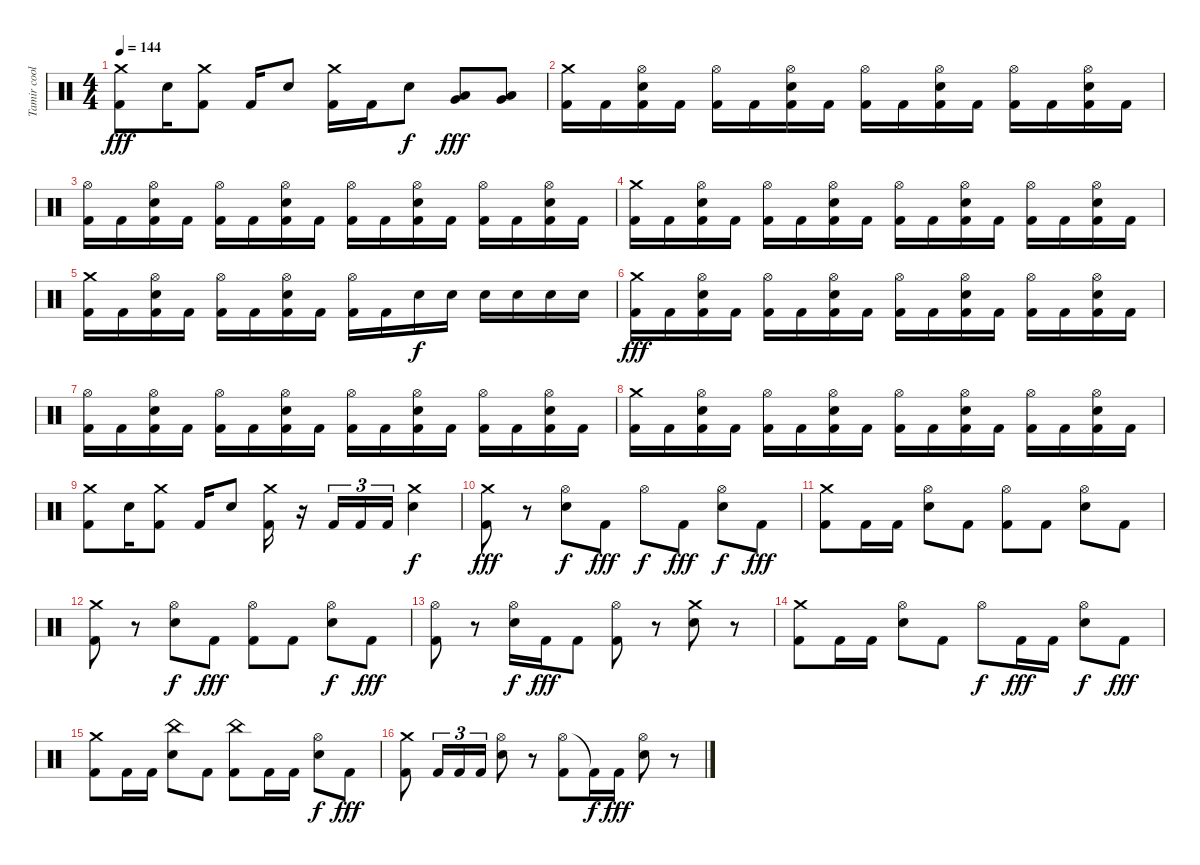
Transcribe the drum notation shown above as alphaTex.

\track ("Tamir coolberg" "Tamir cool") {instrument percussion}
\staff {score}
\articulation defaults
\ts (4 4)
\tempo 144
\clef neutral
\ks c
("Crash medium (hit)" "Kick (hit) 2").8{dy fff} "Snare (hit) 2".16 ("Crash medium (hit)" "Kick (hit) 2").8 "Kick (hit) 2".16 "Snare (hit) 2".8 ("Crash medium (hit)" "Kick (hit) 2").16 "Kick (hit) 2".16 "Snare (hit) 2".8{dy f} ("Low Tom (hit)" "Very Low Tom (hit)").8{dy fff} ("Very Low Tom (hit)" "Low Floor Tom (hit)").8 |
("Crash medium (hit)" "Kick (hit) 2").16{volume 13} "Kick (hit) 2".16 ("Hi-Hat (open)" "Snare (hit) 2" "Kick (hit) 2").16 "Kick (hit) 2".16 ("Hi-Hat (open)" "Kick (hit) 2").16 "Kick (hit) 2".16 ("Hi-Hat (open)" "Snare (hit) 2" "Kick (hit) 2").16 "Kick (hit) 2".16 ("Hi-Hat (open)" "Kick (hit) 2").16 "Kick (hit) 2".16 ("Hi-Hat (open)" "Snare (hit) 2" "Kick (hit) 2").16 "Kick (hit) 2".16 ("Hi-Hat (open)" "Kick (hit) 2").16 "Kick (hit) 2".16 ("Hi-Hat (open)" "Snare (hit) 2" "Kick (hit) 2").16 "Kick (hit) 2".16 |
("Hi-Hat (open)" "Kick (hit) 2").16 "Kick (hit) 2".16 ("Hi-Hat (open)" "Snare (hit) 2" "Kick (hit) 2").16 "Kick (hit) 2".16 ("Hi-Hat (open)" "Kick (hit) 2").16 "Kick (hit) 2".16 ("Hi-Hat (open)" "Snare (hit) 2" "Kick (hit) 2").16 "Kick (hit) 2".16 ("Hi-Hat (open)" "Kick (hit) 2").16 "Kick (hit) 2".16 ("Hi-Hat (open)" "Snare (hit) 2" "Kick (hit) 2").16 "Kick (hit) 2".16 ("Hi-Hat (open)" "Kick (hit) 2").16 "Kick (hit) 2".16 ("Hi-Hat (open)" "Snare (hit) 2" "Kick (hit) 2").16 "Kick (hit) 2".16 |
("Crash medium (hit)" "Kick (hit) 2").16 "Kick (hit) 2".16 ("Hi-Hat (open)" "Snare (hit) 2" "Kick (hit) 2").16 "Kick (hit) 2".16 ("Hi-Hat (open)" "Kick (hit) 2").16 "Kick (hit) 2".16 ("Hi-Hat (open)" "Snare (hit) 2" "Kick (hit) 2").16 "Kick (hit) 2".16 ("Hi-Hat (open)" "Kick (hit) 2").16 "Kick (hit) 2".16 ("Hi-Hat (open)" "Snare (hit) 2" "Kick (hit) 2").16 "Kick (hit) 2".16 ("Hi-Hat (open)" "Kick (hit) 2").16 "Kick (hit) 2".16 ("Hi-Hat (open)" "Snare (hit) 2" "Kick (hit) 2").16 "Kick (hit) 2".16 |
("Crash medium (hit)" "Kick (hit) 2").16 "Kick (hit) 2".16 ("Hi-Hat (open)" "Snare (hit) 2" "Kick (hit) 2").16 "Kick (hit) 2".16 ("Hi-Hat (open)" "Kick (hit) 2").16 "Kick (hit) 2".16 ("Hi-Hat (open)" "Snare (hit) 2" "Kick (hit) 2").16 "Kick (hit) 2".16 ("Hi-Hat (open)" "Kick (hit) 2").16 "Kick (hit) 2".16 "Snare (hit) 2".16{dy f} "Snare (hit) 2".16 "Snare (hit) 2".16 "Snare (hit) 2".16 "Snare (hit) 2".16 "Snare (hit) 2".16 |
("Crash medium (hit)" "Kick (hit) 2").16{dy fff volume 13} "Kick (hit) 2".16 ("Hi-Hat (open)" "Snare (hit) 2" "Kick (hit) 2").16 "Kick (hit) 2".16 ("Hi-Hat (open)" "Kick (hit) 2").16 "Kick (hit) 2".16 ("Hi-Hat (open)" "Snare (hit) 2" "Kick (hit) 2").16 "Kick (hit) 2".16 ("Hi-Hat (open)" "Kick (hit) 2").16 "Kick (hit) 2".16 ("Hi-Hat (open)" "Snare (hit) 2" "Kick (hit) 2").16 "Kick (hit) 2".16 ("Hi-Hat (open)" "Kick (hit) 2").16 "Kick (hit) 2".16 ("Hi-Hat (open)" "Snare (hit) 2" "Kick (hit) 2").16 "Kick (hit) 2".16 |
("Hi-Hat (open)" "Kick (hit) 2").16 "Kick (hit) 2".16 ("Hi-Hat (open)" "Snare (hit) 2" "Kick (hit) 2").16 "Kick (hit) 2".16 ("Hi-Hat (open)" "Kick (hit) 2").16 "Kick (hit) 2".16 ("Hi-Hat (open)" "Snare (hit) 2" "Kick (hit) 2").16 "Kick (hit) 2".16 ("Hi-Hat (open)" "Kick (hit) 2").16 "Kick (hit) 2".16 ("Hi-Hat (open)" "Snare (hit) 2" "Kick (hit) 2").16 "Kick (hit) 2".16 ("Hi-Hat (open)" "Kick (hit) 2").16 "Kick (hit) 2".16 ("Hi-Hat (open)" "Snare (hit) 2" "Kick (hit) 2").16 "Kick (hit) 2".16 |
("Crash medium (hit)" "Kick (hit) 2").16 "Kick (hit) 2".16 ("Hi-Hat (open)" "Snare (hit) 2" "Kick (hit) 2").16 "Kick (hit) 2".16 ("Hi-Hat (open)" "Kick (hit) 2").16 "Kick (hit) 2".16 ("Hi-Hat (open)" "Snare (hit) 2" "Kick (hit) 2").16 "Kick (hit) 2".16 ("Hi-Hat (open)" "Kick (hit) 2").16 "Kick (hit) 2".16 ("Hi-Hat (open)" "Snare (hit) 2" "Kick (hit) 2").16 "Kick (hit) 2".16 ("Hi-Hat (open)" "Kick (hit) 2").16 "Kick (hit) 2".16 ("Hi-Hat (open)" "Snare (hit) 2" "Kick (hit) 2").16 "Kick (hit) 2".16 |
("Crash medium (hit)" "Kick (hit) 2").8 "Snare (hit) 2".16 ("Crash medium (hit)" "Kick (hit) 2").8 "Kick (hit) 2".16 "Snare (hit) 2".8 ("Crash medium (hit)" "Kick (hit) 2").16 r.16 "Kick (hit) 2".16{tu (3 2)} "Kick (hit) 2".16{tu (3 2)} "Kick (hit) 2".16{tu (3 2)} ("Crash medium (hit)" "Electric Snare (hit)").4{dy f} |
("Crash medium (hit)" "Kick (hit) 2").8{dy fff} r.8 ("Hi-Hat (open)" "Electric Snare (hit)").8{dy f} "Kick (hit) 2".8{dy fff} "Hi-Hat (open)".8{dy f} "Kick (hit) 2".8{dy fff} ("Hi-Hat (open)" "Electric Snare (hit)").8{dy f} "Kick (hit) 2".8{dy fff} |
("Crash medium (hit)" "Kick (hit) 2").8 "Kick (hit) 2".16 "Kick (hit) 2".16 ("Hi-Hat (open)" "Electric Snare (hit)").8 "Kick (hit) 2".8 ("Hi-Hat (open)" "Kick (hit) 2").8 "Kick (hit) 2".8 ("Hi-Hat (open)" "Electric Snare (hit)").8 "Kick (hit) 2".8 |
("Crash medium (hit)" "Kick (hit) 2").8 r.8 ("Hi-Hat (open)" "Electric Snare (hit)").8{dy f} "Kick (hit) 2".8{dy fff} ("Hi-Hat (open)" "Kick (hit) 2").8 "Kick (hit) 2".8 ("Hi-Hat (open)" "Electric Snare (hit)").8{dy f} "Kick (hit) 2".8{dy fff} |
("Hi-Hat (open)" "Kick (hit) 2").8 r.8 ("Hi-Hat (open)" "Electric Snare (hit)").16{dy f} "Kick (hit) 2".16{dy fff} "Kick (hit) 2".8 ("Hi-Hat (open)" "Kick (hit) 2").8 r.8 ("Crash medium (hit)" "Electric Snare (hit)").8 r.8 |
("Crash medium (hit)" "Kick (hit) 2").8 "Kick (hit) 2".16 "Kick (hit) 2".16 ("Hi-Hat (open)" "Electric Snare (hit)").8 "Kick (hit) 2".8 "Hi-Hat (open)".8{dy f} "Kick (hit) 2".16{dy fff} "Kick (hit) 2".16 ("Hi-Hat (open)" "Electric Snare (hit)").8{dy f} "Kick (hit) 2".8{dy fff} |
("Crash medium (hit)" "Kick (hit) 2").8 "Kick (hit) 2".16 "Kick (hit) 2".16 ("China (hit)" "Electric Snare (hit)").8 "Kick (hit) 2".8 ("China (hit)" "Kick (hit) 2").8 "Kick (hit) 2".16 "Kick (hit) 2".16 ("Hi-Hat (open)" "Electric Snare (hit)").8{dy f} "Kick (hit) 2".8{dy fff} |
("Crash medium (hit)" "Kick (hit) 2").8 "Kick (hit) 2".16{tu (3 2)} "Kick (hit) 2".16{tu (3 2)} "Kick (hit) 2".16{tu (3 2)} ("Hi-Hat (open)" "Electric Snare (hit)").8 r.8 ("Hi-Hat (open)" "Kick (hit) 2").8 "Kick (hit) 2"{t}.16{dy f} "Kick (hit) 2".16{dy fff} ("Hi-Hat (open)" "Electric Snare (hit)").8 r.8
